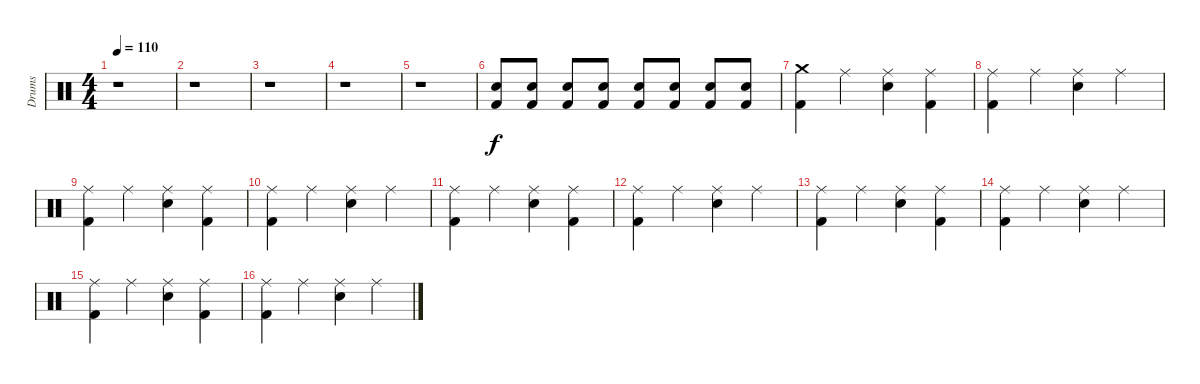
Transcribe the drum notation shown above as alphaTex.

\track ("Drums" "Drums") {instrument percussion}
\staff {score}
\articulation defaults
\ts (4 4)
\tempo 110
\clef neutral
\ks c
r.1{dy f} |
r.1 |
r.1 |
r.1 |
r.1 |
("Electric Snare (hit)" "Kick (hit) 2").8 ("Electric Snare (hit)" "Kick (hit) 2").8 ("Electric Snare (hit)" "Kick (hit) 2").8 ("Electric Snare (hit)" "Kick (hit) 2").8 ("Electric Snare (hit)" "Kick (hit) 2").8 ("Electric Snare (hit)" "Kick (hit) 2").8 ("Electric Snare (hit)" "Kick (hit) 2").8 ("Electric Snare (hit)" "Kick (hit) 2").8 |
("Crash medium (hit)" "Kick (hit) 2").4 "Ride (middle)".4 ("Ride (middle)" "Electric Snare (hit)").4 ("Ride (middle)" "Kick (hit) 2").4 |
("Ride (middle)" "Kick (hit) 2").4 "Ride (middle)".4 ("Ride (middle)" "Electric Snare (hit)").4 "Ride (middle)".4 |
("Ride (middle)" "Kick (hit) 2").4 "Ride (middle)".4 ("Ride (middle)" "Electric Snare (hit)").4 ("Ride (middle)" "Kick (hit) 2").4 |
("Ride (middle)" "Kick (hit) 2").4 "Ride (middle)".4 ("Ride (middle)" "Electric Snare (hit)").4 "Ride (middle)".4 |
("Ride (middle)" "Kick (hit) 2").4 "Ride (middle)".4 ("Ride (middle)" "Electric Snare (hit)").4 ("Ride (middle)" "Kick (hit) 2").4 |
("Ride (middle)" "Kick (hit) 2").4 "Ride (middle)".4 ("Ride (middle)" "Electric Snare (hit)").4 "Ride (middle)".4 |
("Ride (middle)" "Kick (hit) 2").4 "Ride (middle)".4 ("Ride (middle)" "Electric Snare (hit)").4 ("Ride (middle)" "Kick (hit) 2").4 |
("Ride (middle)" "Kick (hit) 2").4 "Ride (middle)".4 ("Ride (middle)" "Electric Snare (hit)").4 "Ride (middle)".4 |
("Ride (middle)" "Kick (hit) 2").4 "Ride (middle)".4 ("Ride (middle)" "Electric Snare (hit)").4 ("Ride (middle)" "Kick (hit) 2").4 |
("Ride (middle)" "Kick (hit) 2").4 "Ride (middle)".4 ("Ride (middle)" "Electric Snare (hit)").4 "Ride (middle)".4
